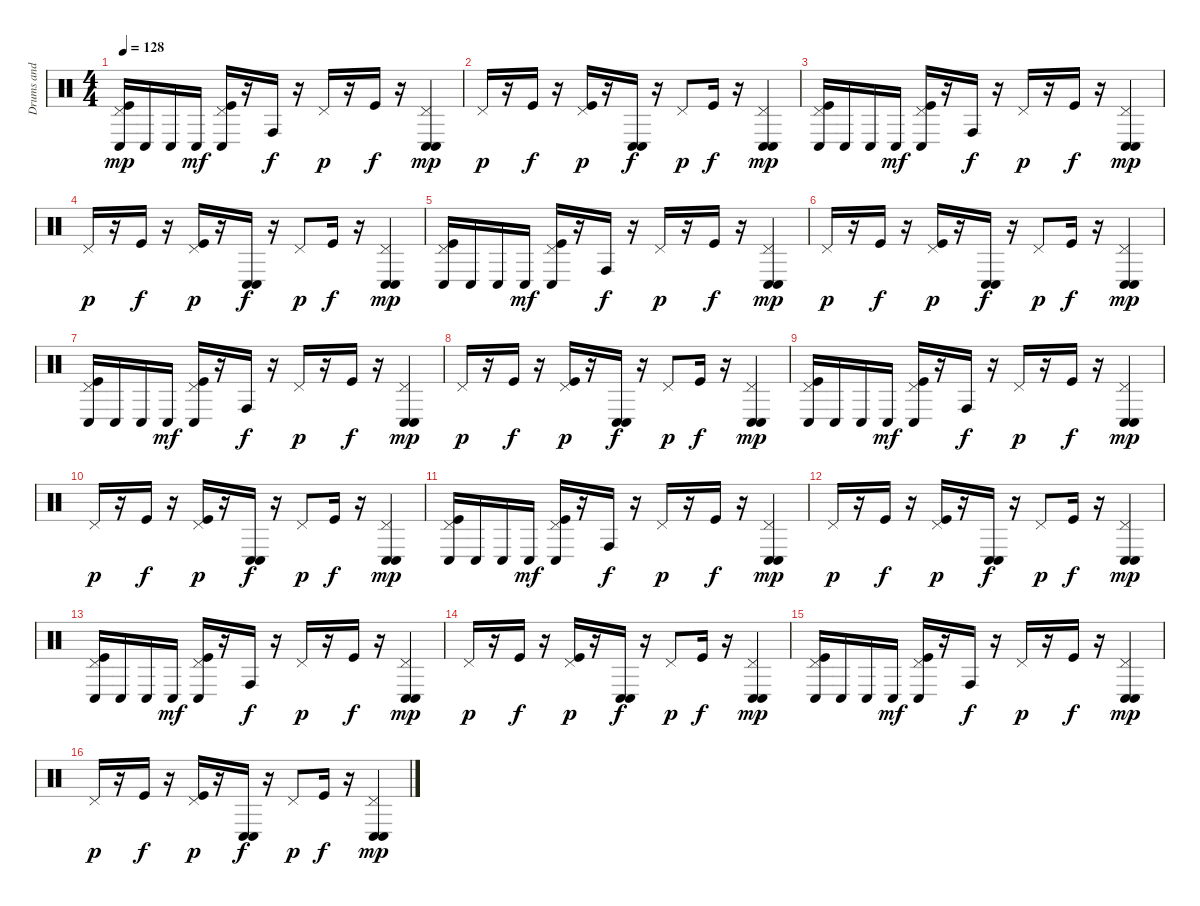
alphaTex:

\track ("Drums and Percussions" "Drums and ") {instrument percussion}
\staff {score}
\articulation defaults
\ts (4 4)
\tempo 128
\clef neutral
\ks c
("Pedal Hi-Hat (hit)" "Conga low (hit)" "Kick (hit)").16{dy mp} "Conga low (hit)".16 "Conga low (hit)".16 "Conga low (hit)".16{dy mf} ("Pedal Hi-Hat (hit)" "Conga low (hit)" "Kick (hit)").16 r.16 "Conga high (hit)".16{dy f} r.16 "Pedal Hi-Hat (hit)".16{dy p} r.16 "Kick (hit)".16{dy f} r.16 ("Conga low (hit)" "Conga low (hit)" "Pedal Hi-Hat (hit)").4{bd 120 dy mp} |
"Pedal Hi-Hat (hit)".16{dy p} r.16 "Kick (hit)".16{dy f} r.16 ("Pedal Hi-Hat (hit)" "Kick (hit)").16{dy p} r.16 ("Conga low (hit)" "Conga low (hit)").16{bd 120 dy f} r.16 "Pedal Hi-Hat (hit)".8{dy p} "Kick (hit)".16{dy f} r.16 ("Conga low (hit)" "Conga low (hit)" "Pedal Hi-Hat (hit)").4{bd 120 dy mp} |
("Pedal Hi-Hat (hit)" "Conga low (hit)" "Kick (hit)").16 "Conga low (hit)".16 "Conga low (hit)".16 "Conga low (hit)".16{dy mf} ("Pedal Hi-Hat (hit)" "Conga low (hit)" "Kick (hit)").16 r.16 "Conga high (hit)".16{dy f} r.16 "Pedal Hi-Hat (hit)".16{dy p} r.16 "Kick (hit)".16{dy f} r.16 ("Conga low (hit)" "Conga low (hit)" "Pedal Hi-Hat (hit)").4{bd 120 dy mp} |
"Pedal Hi-Hat (hit)".16{dy p} r.16 "Kick (hit)".16{dy f} r.16 ("Pedal Hi-Hat (hit)" "Kick (hit)").16{dy p} r.16 ("Conga low (hit)" "Conga low (hit)").16{bd 120 dy f} r.16 "Pedal Hi-Hat (hit)".8{dy p} "Kick (hit)".16{dy f} r.16 ("Conga low (hit)" "Conga low (hit)" "Pedal Hi-Hat (hit)").4{bd 120 dy mp} |
("Pedal Hi-Hat (hit)" "Conga low (hit)" "Kick (hit)").16 "Conga low (hit)".16 "Conga low (hit)".16 "Conga low (hit)".16{dy mf} ("Pedal Hi-Hat (hit)" "Conga low (hit)" "Kick (hit)").16 r.16 "Conga high (hit)".16{dy f} r.16 "Pedal Hi-Hat (hit)".16{dy p} r.16 "Kick (hit)".16{dy f} r.16 ("Conga low (hit)" "Conga low (hit)" "Pedal Hi-Hat (hit)").4{bd 120 dy mp} |
"Pedal Hi-Hat (hit)".16{dy p} r.16 "Kick (hit)".16{dy f} r.16 ("Pedal Hi-Hat (hit)" "Kick (hit)").16{dy p} r.16 ("Conga low (hit)" "Conga low (hit)").16{bd 120 dy f} r.16 "Pedal Hi-Hat (hit)".8{dy p} "Kick (hit)".16{dy f} r.16 ("Conga low (hit)" "Conga low (hit)" "Pedal Hi-Hat (hit)").4{bd 120 dy mp} |
("Pedal Hi-Hat (hit)" "Conga low (hit)" "Kick (hit)").16 "Conga low (hit)".16 "Conga low (hit)".16 "Conga low (hit)".16{dy mf} ("Pedal Hi-Hat (hit)" "Conga low (hit)" "Kick (hit)").16 r.16 "Conga high (hit)".16{dy f} r.16 "Pedal Hi-Hat (hit)".16{dy p} r.16 "Kick (hit)".16{dy f} r.16 ("Conga low (hit)" "Conga low (hit)" "Pedal Hi-Hat (hit)").4{bd 120 dy mp} |
"Pedal Hi-Hat (hit)".16{dy p} r.16 "Kick (hit)".16{dy f} r.16 ("Pedal Hi-Hat (hit)" "Kick (hit)").16{dy p} r.16 ("Conga low (hit)" "Conga low (hit)").16{bd 120 dy f} r.16 "Pedal Hi-Hat (hit)".8{dy p} "Kick (hit)".16{dy f} r.16 ("Conga low (hit)" "Conga low (hit)" "Pedal Hi-Hat (hit)").4{bd 120 dy mp} |
("Pedal Hi-Hat (hit)" "Conga low (hit)" "Kick (hit)").16 "Conga low (hit)".16 "Conga low (hit)".16 "Conga low (hit)".16{dy mf} ("Pedal Hi-Hat (hit)" "Conga low (hit)" "Kick (hit)").16 r.16 "Conga high (hit)".16{dy f} r.16 "Pedal Hi-Hat (hit)".16{dy p} r.16 "Kick (hit)".16{dy f} r.16 ("Conga low (hit)" "Conga low (hit)" "Pedal Hi-Hat (hit)").4{bd 120 dy mp} |
"Pedal Hi-Hat (hit)".16{dy p} r.16 "Kick (hit)".16{dy f} r.16 ("Pedal Hi-Hat (hit)" "Kick (hit)").16{dy p} r.16 ("Conga low (hit)" "Conga low (hit)").16{bd 120 dy f} r.16 "Pedal Hi-Hat (hit)".8{dy p} "Kick (hit)".16{dy f} r.16 ("Conga low (hit)" "Conga low (hit)" "Pedal Hi-Hat (hit)").4{bd 120 dy mp} |
("Pedal Hi-Hat (hit)" "Conga low (hit)" "Kick (hit)").16 "Conga low (hit)".16 "Conga low (hit)".16 "Conga low (hit)".16{dy mf} ("Pedal Hi-Hat (hit)" "Conga low (hit)" "Kick (hit)").16 r.16 "Conga high (hit)".16{dy f} r.16 "Pedal Hi-Hat (hit)".16{dy p} r.16 "Kick (hit)".16{dy f} r.16 ("Conga low (hit)" "Conga low (hit)" "Pedal Hi-Hat (hit)").4{bd 120 dy mp} |
"Pedal Hi-Hat (hit)".16{dy p} r.16 "Kick (hit)".16{dy f} r.16 ("Pedal Hi-Hat (hit)" "Kick (hit)").16{dy p} r.16 ("Conga low (hit)" "Conga low (hit)").16{bd 120 dy f} r.16 "Pedal Hi-Hat (hit)".8{dy p} "Kick (hit)".16{dy f} r.16 ("Conga low (hit)" "Conga low (hit)" "Pedal Hi-Hat (hit)").4{bd 120 dy mp} |
("Pedal Hi-Hat (hit)" "Conga low (hit)" "Kick (hit)").16 "Conga low (hit)".16 "Conga low (hit)".16 "Conga low (hit)".16{dy mf} ("Pedal Hi-Hat (hit)" "Conga low (hit)" "Kick (hit)").16 r.16 "Conga high (hit)".16{dy f} r.16 "Pedal Hi-Hat (hit)".16{dy p} r.16 "Kick (hit)".16{dy f} r.16 ("Conga low (hit)" "Conga low (hit)" "Pedal Hi-Hat (hit)").4{bd 120 dy mp} |
"Pedal Hi-Hat (hit)".16{dy p} r.16 "Kick (hit)".16{dy f} r.16 ("Pedal Hi-Hat (hit)" "Kick (hit)").16{dy p} r.16 ("Conga low (hit)" "Conga low (hit)").16{bd 120 dy f} r.16 "Pedal Hi-Hat (hit)".8{dy p} "Kick (hit)".16{dy f} r.16 ("Conga low (hit)" "Conga low (hit)" "Pedal Hi-Hat (hit)").4{bd 120 dy mp} |
("Pedal Hi-Hat (hit)" "Conga low (hit)" "Kick (hit)").16 "Conga low (hit)".16 "Conga low (hit)".16 "Conga low (hit)".16{dy mf} ("Pedal Hi-Hat (hit)" "Conga low (hit)" "Kick (hit)").16 r.16 "Conga high (hit)".16{dy f} r.16 "Pedal Hi-Hat (hit)".16{dy p} r.16 "Kick (hit)".16{dy f} r.16 ("Conga low (hit)" "Conga low (hit)" "Pedal Hi-Hat (hit)").4{bd 120 dy mp} |
"Pedal Hi-Hat (hit)".16{dy p} r.16 "Kick (hit)".16{dy f} r.16 ("Pedal Hi-Hat (hit)" "Kick (hit)").16{dy p} r.16 ("Conga low (hit)" "Conga low (hit)").16{bd 120 dy f} r.16 "Pedal Hi-Hat (hit)".8{dy p} "Kick (hit)".16{dy f} r.16 ("Conga low (hit)" "Conga low (hit)" "Pedal Hi-Hat (hit)").4{bd 120 dy mp}
